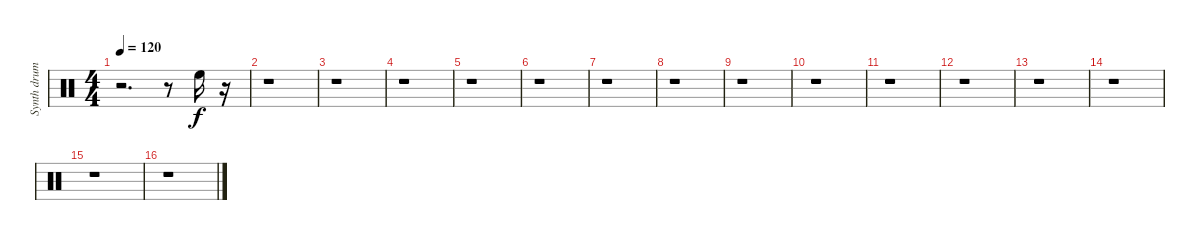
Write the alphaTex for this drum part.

\track ("Synth drum" "Synth drum") {instrument percussion}
\staff {score}
\articulation defaults
\ts (4 4)
\tempo 120
\clef neutral
\ks c
r.2{d dy f} r.8 "High Floor Tom (hit)".16 r.16 |
r.1 |
r.1 |
r.1 |
r.1 |
r.1 |
r.1 |
r.1 |
r.1 |
r.1 |
r.1 |
r.1 |
r.1 |
r.1 |
r.1 |
r.1
